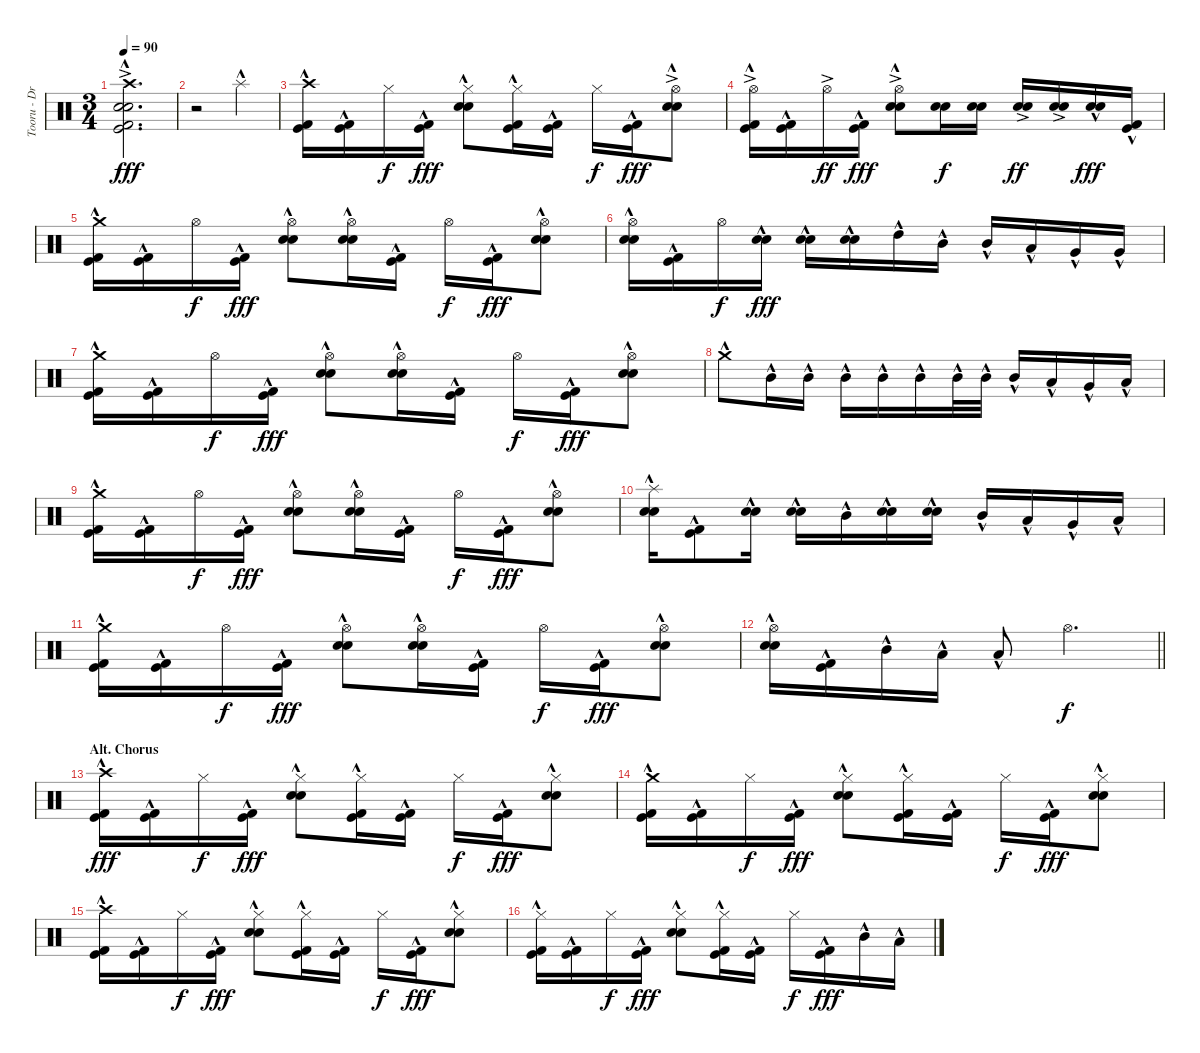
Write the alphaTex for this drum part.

\track ("Tooru - Drums" "Tooru - Dr") {instrument percussion}
\staff {score}
\articulation defaults
\ts (3 4)
\tempo 90
\clef neutral
\ks c
("Crash high (hit)"{ac} "Electric Snare (hit)"{hac} "Snare (hit) 2"{hac} "Kick (hit) 2"{hac} "Kick (hit)"{hac}).2{d dy fff} |
r.2 "Splash (hit)"{hac}.4 |
("Crash high (hit)"{hac} "Kick (hit)"{hac} "Kick (hit) 2"{hac}).16 ("Kick (hit)"{hac} "Kick (hit) 2"{hac}).16 "Hi-Hat (closed)".16{dy f} ("Kick (hit)"{hac} "Kick (hit) 2"{hac}).16{dy fff} ("Hi-Hat (closed)" "Electric Snare (hit)"{hac} "Snare (hit) 2"{hac}).8 ("Hi-Hat (closed)" "Kick (hit)"{hac} "Kick (hit) 2"{hac}).16 ("Kick (hit)"{hac} "Kick (hit) 2"{hac}).16 "Hi-Hat (closed)".16{dy f} ("Kick (hit)"{hac} "Kick (hit) 2"{hac}).16{dy fff} ("Hi-Hat (open)"{ac} "Electric Snare (hit)"{hac} "Snare (hit) 2"{hac}).8 |
("Hi-Hat (open)"{ac} "Kick (hit)"{hac} "Kick (hit) 2"{hac}).16 ("Kick (hit)"{hac} "Kick (hit) 2"{hac}).16 "Hi-Hat (open)"{ac}.16{dy ff} ("Kick (hit)"{hac} "Kick (hit) 2"{hac}).16{dy fff} ("Hi-Hat (open)"{ac} "Electric Snare (hit)"{hac} "Snare (hit) 2"{hac}).8 ("Electric Snare (hit)" "Snare (hit) 2").16{dy f} ("Electric Snare (hit)" "Snare (hit) 2").16 ("Electric Snare (hit)"{ac} "Snare (hit) 2"{ac}).16{dy ff} ("Electric Snare (hit)"{ac} "Snare (hit) 2"{ac}).16 ("Electric Snare (hit)"{hac} "Snare (hit) 2"{hac}).16{dy fff} ("Kick (hit) 2"{hac} "Kick (hit)"{hac}).16 |
("Crash medium (hit)" "Kick (hit)"{hac} "Kick (hit) 2"{hac}).16 ("Kick (hit)"{hac} "Kick (hit) 2"{hac}).16 "Hi-Hat (open)".16{dy f} ("Kick (hit)"{hac} "Kick (hit) 2"{hac}).16{dy fff} ("Hi-Hat (open)" "Electric Snare (hit)"{hac} "Snare (hit) 2"{hac}).8 ("Hi-Hat (open)" "Electric Snare (hit)"{hac} "Snare (hit) 2"{hac}).16 ("Kick (hit)"{hac} "Kick (hit) 2"{hac}).16 "Hi-Hat (open)".16{dy f} ("Kick (hit)"{hac} "Kick (hit) 2"{hac}).16{dy fff} ("Hi-Hat (open)" "Electric Snare (hit)"{hac} "Snare (hit) 2"{hac}).8 |
("Hi-Hat (open)" "Electric Snare (hit)"{hac} "Snare (hit) 2"{hac}).16 ("Kick (hit)"{hac} "Kick (hit) 2"{hac}).16 "Hi-Hat (open)".16{dy f} ("Electric Snare (hit)"{hac} "Snare (hit) 2"{hac}).16{dy fff} ("Electric Snare (hit)"{hac} "Snare (hit) 2"{hac}).16 ("Electric Snare (hit)"{hac} "Snare (hit) 2"{hac}).16 "High Tom (hit)"{hac}.16 "Mid Tom (hit)"{hac}.16 "Mid Tom (hit)"{hac}.16 "Low Tom (hit)"{hac}.16 "Very Low Tom (hit)"{hac}.16 "Very Low Tom (hit)"{hac}.16 |
("Crash medium (hit)" "Kick (hit)"{hac} "Kick (hit) 2"{hac}).16 ("Kick (hit)"{hac} "Kick (hit) 2"{hac}).16 "Hi-Hat (open)".16{dy f} ("Kick (hit)"{hac} "Kick (hit) 2"{hac}).16{dy fff} ("Hi-Hat (open)" "Electric Snare (hit)"{hac} "Snare (hit) 2"{hac}).8 ("Hi-Hat (open)" "Electric Snare (hit)"{hac} "Snare (hit) 2"{hac}).16 ("Kick (hit)"{hac} "Kick (hit) 2"{hac}).16 "Hi-Hat (open)".16{dy f} ("Kick (hit)"{hac} "Kick (hit) 2"{hac}).16{dy fff} ("Hi-Hat (open)" "Electric Snare (hit)"{hac} "Snare (hit) 2"{hac}).8 |
"Crash medium (hit)"{hac}.8 "Mid Tom (hit)"{hac}.16 "Mid Tom (hit)"{hac}.16 "Mid Tom (hit)"{hac}.16 "Mid Tom (hit)"{hac}.16 "Mid Tom (hit)"{hac}.16 "Mid Tom (hit)"{hac}.32 "Mid Tom (hit)"{hac}.32 "Mid Tom (hit)"{hac}.16 "Low Tom (hit)"{hac}.16 "Very Low Tom (hit)"{hac}.16 "Low Floor Tom (hit)"{hac}.16 |
("Crash medium (hit)" "Kick (hit)"{hac} "Kick (hit) 2"{hac}).16 ("Kick (hit)"{hac} "Kick (hit) 2"{hac}).16 "Hi-Hat (open)".16{dy f} ("Kick (hit)"{hac} "Kick (hit) 2"{hac}).16{dy fff} ("Hi-Hat (open)" "Electric Snare (hit)"{hac} "Snare (hit) 2"{hac}).8 ("Hi-Hat (open)" "Electric Snare (hit)"{hac} "Snare (hit) 2"{hac}).16 ("Kick (hit)"{hac} "Kick (hit) 2"{hac}).16 "Hi-Hat (open)".16{dy f} ("Kick (hit)"{hac} "Kick (hit) 2"{hac}).16{dy fff} ("Hi-Hat (open)" "Electric Snare (hit)"{hac} "Snare (hit) 2"{hac}).8 |
("Splash (hit)" "Electric Snare (hit)"{hac} "Snare (hit) 2"{hac}).16 ("Kick (hit)"{hac} "Kick (hit) 2"{hac}).8 ("Electric Snare (hit)"{hac} "Snare (hit) 2"{hac}).16 ("Electric Snare (hit)"{hac} "Snare (hit) 2"{hac}).16 "Mid Tom (hit)"{hac}.16 ("Electric Snare (hit)"{hac} "Snare (hit) 2"{hac}).16 ("Electric Snare (hit)"{hac} "Snare (hit) 2"{hac}).16 "Mid Tom (hit)"{hac}.16 "Low Tom (hit)"{hac}.16 "Very Low Tom (hit)"{hac}.16 "Low Floor Tom (hit)"{hac}.16 |
("Crash medium (hit)" "Kick (hit)"{hac} "Kick (hit) 2"{hac}).16 ("Kick (hit)"{hac} "Kick (hit) 2"{hac}).16 "Hi-Hat (open)".16{dy f} ("Kick (hit)"{hac} "Kick (hit) 2"{hac}).16{dy fff} ("Hi-Hat (open)" "Electric Snare (hit)"{hac} "Snare (hit) 2"{hac}).8 ("Hi-Hat (open)" "Electric Snare (hit)"{hac} "Snare (hit) 2"{hac}).16 ("Kick (hit)"{hac} "Kick (hit) 2"{hac}).16 "Hi-Hat (open)".16{dy f} ("Kick (hit)"{hac} "Kick (hit) 2"{hac}).16{dy fff} ("Hi-Hat (open)" "Electric Snare (hit)"{hac} "Snare (hit) 2"{hac}).8 |
\barLineRight lightlight
("Hi-Hat (open)" "Electric Snare (hit)"{hac} "Snare (hit) 2"{hac}).16 ("Kick (hit)"{hac} "Kick (hit) 2"{hac}).16 "Mid Tom (hit)"{hac}.16 "Low Tom (hit)"{hac}.16 "Low Tom (hit)"{hac}.8 "Hi-Hat (open)".4{d dy f} |
\section ("" "Alt. Chorus")
("Crash high (hit)"{hac} "Kick (hit)"{hac} "Kick (hit) 2"{hac}).16{dy fff} ("Kick (hit)"{hac} "Kick (hit) 2"{hac}).16 "Hi-Hat (closed)".16{dy f} ("Kick (hit)"{hac} "Kick (hit) 2"{hac}).16{dy fff} ("Hi-Hat (closed)" "Electric Snare (hit)"{hac} "Snare (hit) 2"{hac}).8 ("Hi-Hat (closed)" "Kick (hit)"{hac} "Kick (hit) 2"{hac}).16 ("Kick (hit)"{hac} "Kick (hit) 2"{hac}).16 "Hi-Hat (closed)".16{dy f} ("Kick (hit)"{hac} "Kick (hit) 2"{hac}).16{dy fff} ("Hi-Hat (closed)" "Electric Snare (hit)"{hac} "Snare (hit) 2"{hac}).8 |
("Crash medium (hit)"{hac} "Kick (hit)"{hac} "Kick (hit) 2"{hac}).16 ("Kick (hit)"{hac} "Kick (hit) 2"{hac}).16 "Hi-Hat (closed)".16{dy f} ("Kick (hit)"{hac} "Kick (hit) 2"{hac}).16{dy fff} ("Hi-Hat (closed)" "Electric Snare (hit)"{hac} "Snare (hit) 2"{hac}).8 ("Hi-Hat (closed)" "Kick (hit)"{hac} "Kick (hit) 2"{hac}).16 ("Kick (hit)"{hac} "Kick (hit) 2"{hac}).16 "Hi-Hat (closed)".16{dy f} ("Kick (hit)"{hac} "Kick (hit) 2"{hac}).16{dy fff} ("Hi-Hat (closed)" "Electric Snare (hit)"{hac} "Snare (hit) 2"{hac}).8 |
("Crash high (hit)"{hac} "Kick (hit)"{hac} "Kick (hit) 2"{hac}).16 ("Kick (hit)"{hac} "Kick (hit) 2"{hac}).16 "Hi-Hat (closed)".16{dy f} ("Kick (hit)"{hac} "Kick (hit) 2"{hac}).16{dy fff} ("Hi-Hat (closed)" "Electric Snare (hit)"{hac} "Snare (hit) 2"{hac}).8 ("Hi-Hat (closed)" "Kick (hit)"{hac} "Kick (hit) 2"{hac}).16 ("Kick (hit)"{hac} "Kick (hit) 2"{hac}).16 "Hi-Hat (closed)".16{dy f} ("Kick (hit)"{hac} "Kick (hit) 2"{hac}).16{dy fff} ("Hi-Hat (closed)" "Electric Snare (hit)"{hac} "Snare (hit) 2"{hac}).8 |
("Hi-Hat (closed)" "Kick (hit)"{hac} "Kick (hit) 2"{hac}).16 ("Kick (hit)"{hac} "Kick (hit) 2"{hac}).16 "Hi-Hat (closed)".16{dy f} ("Kick (hit)"{hac} "Kick (hit) 2"{hac}).16{dy fff} ("Hi-Hat (closed)" "Electric Snare (hit)"{hac} "Snare (hit) 2"{hac}).8 ("Hi-Hat (closed)" "Kick (hit)"{hac} "Kick (hit) 2"{hac}).16 ("Kick (hit)"{hac} "Kick (hit) 2"{hac}).16 "Hi-Hat (closed)".16{dy f} ("Kick (hit)"{hac} "Kick (hit) 2"{hac}).16{dy fff} "Mid Tom (hit)"{hac}.16 "Low Tom (hit)"{hac}.16
